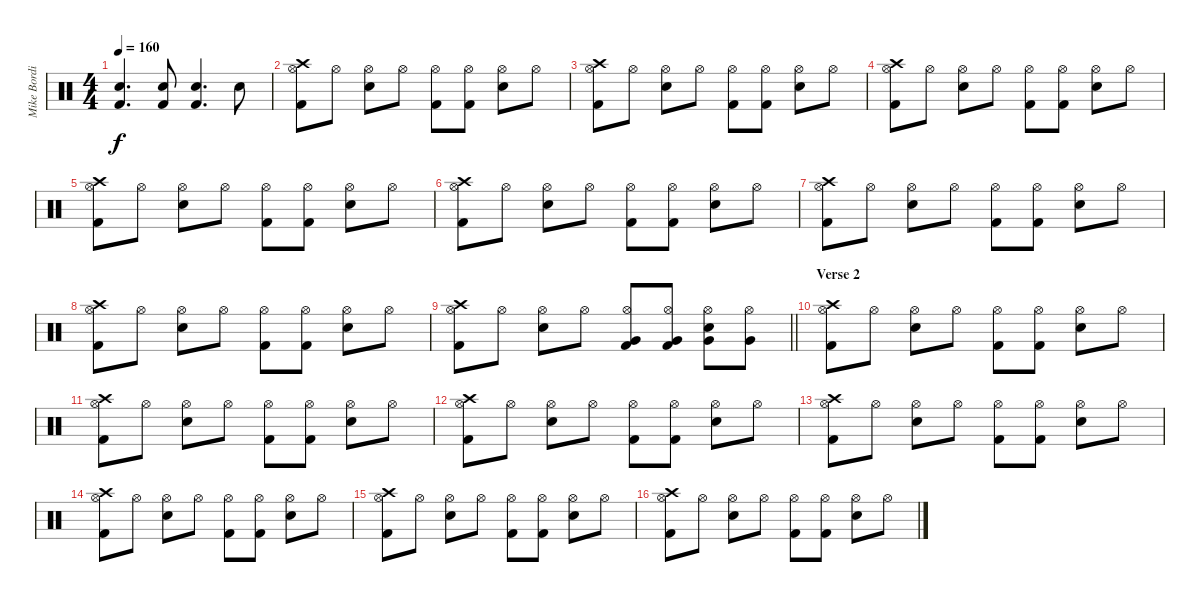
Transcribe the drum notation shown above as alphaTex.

\track ("Mike Bordin - Drums" "Mike Bordi") {instrument percussion}
\staff {score}
\articulation defaults
\ts (4 4)
\tempo 160
\clef neutral
\ks c
("Snare (hit) 2" "Kick (hit) 2").4{d dy f} ("Snare (hit) 2" "Kick (hit) 2").8 ("Snare (hit) 2" "Kick (hit) 2").4{d} "Snare (hit) 2".8 |
("Crash high (hit)" "Hi-Hat (open)" "Kick (hit) 2").8 "Hi-Hat (open)".8 ("Hi-Hat (open)" "Snare (hit) 2").8 "Hi-Hat (open)".8 ("Hi-Hat (open)" "Kick (hit) 2").8 ("Hi-Hat (open)" "Kick (hit) 2").8 ("Hi-Hat (open)" "Snare (hit) 2").8 "Hi-Hat (open)".8 |
("Crash high (hit)" "Hi-Hat (open)" "Kick (hit) 2").8 "Hi-Hat (open)".8 ("Hi-Hat (open)" "Snare (hit) 2").8 "Hi-Hat (open)".8 ("Hi-Hat (open)" "Kick (hit) 2").8 ("Hi-Hat (open)" "Kick (hit) 2").8 ("Hi-Hat (open)" "Snare (hit) 2").8 "Hi-Hat (open)".8 |
("Crash high (hit)" "Hi-Hat (open)" "Kick (hit) 2").8 "Hi-Hat (open)".8 ("Hi-Hat (open)" "Snare (hit) 2").8 "Hi-Hat (open)".8 ("Hi-Hat (open)" "Kick (hit) 2").8 ("Hi-Hat (open)" "Kick (hit) 2").8 ("Hi-Hat (open)" "Snare (hit) 2").8 "Hi-Hat (open)".8 |
("Crash high (hit)" "Hi-Hat (open)" "Kick (hit) 2").8 "Hi-Hat (open)".8 ("Hi-Hat (open)" "Snare (hit) 2").8 "Hi-Hat (open)".8 ("Hi-Hat (open)" "Kick (hit) 2").8 ("Hi-Hat (open)" "Kick (hit) 2").8 ("Hi-Hat (open)" "Snare (hit) 2").8 "Hi-Hat (open)".8 |
("Crash high (hit)" "Hi-Hat (open)" "Kick (hit) 2").8 "Hi-Hat (open)".8 ("Hi-Hat (open)" "Snare (hit) 2").8 "Hi-Hat (open)".8 ("Hi-Hat (open)" "Kick (hit) 2").8 ("Hi-Hat (open)" "Kick (hit) 2").8 ("Hi-Hat (open)" "Snare (hit) 2").8 "Hi-Hat (open)".8 |
("Crash high (hit)" "Hi-Hat (open)" "Kick (hit) 2").8 "Hi-Hat (open)".8 ("Hi-Hat (open)" "Snare (hit) 2").8 "Hi-Hat (open)".8 ("Hi-Hat (open)" "Kick (hit) 2").8 ("Hi-Hat (open)" "Kick (hit) 2").8 ("Hi-Hat (open)" "Snare (hit) 2").8 "Hi-Hat (open)".8 |
("Crash high (hit)" "Hi-Hat (open)" "Kick (hit) 2").8 "Hi-Hat (open)".8 ("Hi-Hat (open)" "Snare (hit) 2").8 "Hi-Hat (open)".8 ("Hi-Hat (open)" "Kick (hit) 2").8 ("Hi-Hat (open)" "Kick (hit) 2").8 ("Hi-Hat (open)" "Snare (hit) 2").8 "Hi-Hat (open)".8 |
\barLineRight lightlight
("Crash high (hit)" "Hi-Hat (open)" "Kick (hit) 2").8 "Hi-Hat (open)".8 ("Hi-Hat (open)" "Snare (hit) 2").8 "Hi-Hat (open)".8 ("Hi-Hat (open)" "Very Low Tom (hit)" "Kick (hit) 2").8 ("Hi-Hat (open)" "Very Low Tom (hit)" "Kick (hit) 2").8 ("Hi-Hat (open)" "Snare (hit) 2" "Very Low Tom (hit)").8 ("Hi-Hat (open)" "Very Low Tom (hit)").8 |
\section ("" "Verse 2")
("Crash high (hit)" "Hi-Hat (open)" "Kick (hit) 2").8 "Hi-Hat (open)".8 ("Hi-Hat (open)" "Snare (hit) 2").8 "Hi-Hat (open)".8 ("Hi-Hat (open)" "Kick (hit) 2").8 ("Hi-Hat (open)" "Kick (hit) 2").8 ("Hi-Hat (open)" "Snare (hit) 2").8 "Hi-Hat (open)".8 |
("Crash high (hit)" "Hi-Hat (open)" "Kick (hit) 2").8 "Hi-Hat (open)".8 ("Hi-Hat (open)" "Snare (hit) 2").8 "Hi-Hat (open)".8 ("Hi-Hat (open)" "Kick (hit) 2").8 ("Hi-Hat (open)" "Kick (hit) 2").8 ("Hi-Hat (open)" "Snare (hit) 2").8 "Hi-Hat (open)".8 |
("Crash high (hit)" "Hi-Hat (open)" "Kick (hit) 2").8 "Hi-Hat (open)".8 ("Hi-Hat (open)" "Snare (hit) 2").8 "Hi-Hat (open)".8 ("Hi-Hat (open)" "Kick (hit) 2").8 ("Hi-Hat (open)" "Kick (hit) 2").8 ("Hi-Hat (open)" "Snare (hit) 2").8 "Hi-Hat (open)".8 |
("Crash high (hit)" "Hi-Hat (open)" "Kick (hit) 2").8 "Hi-Hat (open)".8 ("Hi-Hat (open)" "Snare (hit) 2").8 "Hi-Hat (open)".8 ("Hi-Hat (open)" "Kick (hit) 2").8 ("Hi-Hat (open)" "Kick (hit) 2").8 ("Hi-Hat (open)" "Snare (hit) 2").8 "Hi-Hat (open)".8 |
("Crash high (hit)" "Hi-Hat (open)" "Kick (hit) 2").8 "Hi-Hat (open)".8 ("Hi-Hat (open)" "Snare (hit) 2").8 "Hi-Hat (open)".8 ("Hi-Hat (open)" "Kick (hit) 2").8 ("Hi-Hat (open)" "Kick (hit) 2").8 ("Hi-Hat (open)" "Snare (hit) 2").8 "Hi-Hat (open)".8 |
("Crash high (hit)" "Hi-Hat (open)" "Kick (hit) 2").8 "Hi-Hat (open)".8 ("Hi-Hat (open)" "Snare (hit) 2").8 "Hi-Hat (open)".8 ("Hi-Hat (open)" "Kick (hit) 2").8 ("Hi-Hat (open)" "Kick (hit) 2").8 ("Hi-Hat (open)" "Snare (hit) 2").8 "Hi-Hat (open)".8 |
("Crash high (hit)" "Hi-Hat (open)" "Kick (hit) 2").8 "Hi-Hat (open)".8 ("Hi-Hat (open)" "Snare (hit) 2").8 "Hi-Hat (open)".8 ("Hi-Hat (open)" "Kick (hit) 2").8 ("Hi-Hat (open)" "Kick (hit) 2").8 ("Hi-Hat (open)" "Snare (hit) 2").8 "Hi-Hat (open)".8
